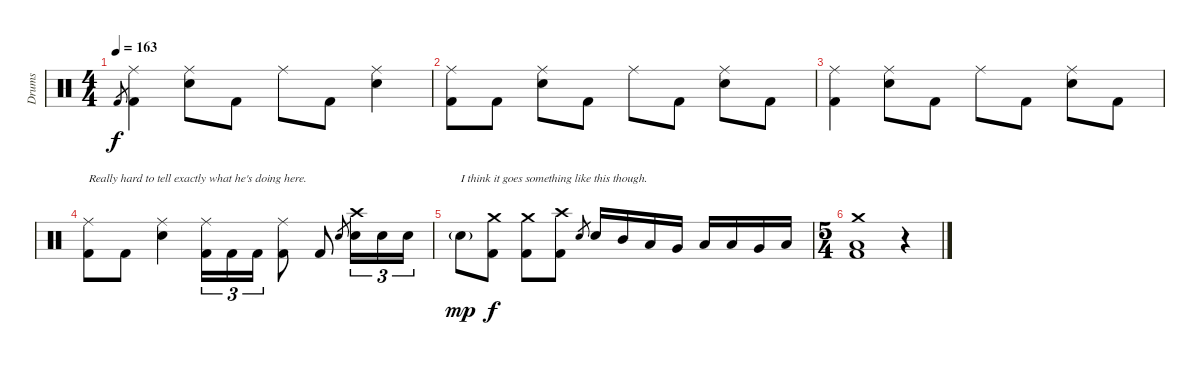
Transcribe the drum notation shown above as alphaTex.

\track ("Drums" "Drums") {instrument percussion}
\staff {score}
\articulation defaults
\ts (4 4)
\tempo 163
\clef neutral
\ks c "Kick (hit) 2".8{gr dy f}
("Ride (middle)" "Kick (hit) 2").4 ("Ride (middle)" "Electric Snare (hit)").8 "Kick (hit) 2".8 "Ride (middle)".8 "Kick (hit) 2".8 ("Ride (middle)" "Electric Snare (hit)").4 |
("Ride (middle)" "Kick (hit) 2").8 "Kick (hit) 2".8 ("Ride (middle)" "Electric Snare (hit)").8 "Kick (hit) 2".8 "Ride (middle)".8 "Kick (hit) 2".8 ("Ride (middle)" "Electric Snare (hit)").8 "Kick (hit) 2".8 |
("Ride (middle)" "Kick (hit) 2").4 ("Ride (middle)" "Electric Snare (hit)").8 "Kick (hit) 2".8 "Ride (middle)".8 "Kick (hit) 2".8 ("Ride (middle)" "Electric Snare (hit)").8 "Kick (hit) 2".8 |
("Ride (middle)" "Kick (hit) 2").8{txt "Really hard to tell exactly what he's doing here."} "Kick (hit) 2".8 ("Ride (middle)" "Electric Snare (hit)").4 ("Ride (middle)" "Kick (hit) 2").16{tu (3 2)} "Kick (hit) 2".16{tu (3 2)} "Kick (hit) 2".16{tu (3 2)} ("Ride (middle)" "Kick (hit) 2").8 "Kick (hit) 2".8 "Electric Snare (hit)".8{gr} ("Crash high (hit)" "Electric Snare (hit)").16{tu (3 2)} "Electric Snare (hit)".16{tu (3 2)} "Electric Snare (hit)".16{tu (3 2)} |
"Electric Snare (hit)"{g}.8{txt "I think it goes something like this though." dy mp} ("Crash medium (hit)" "Kick (hit) 2").8{dy f} ("Crash medium (hit)" "Kick (hit) 2").8 ("Crash high (hit)" "Kick (hit) 2").8 "Electric Snare (hit)".8{gr} "Electric Snare (hit)".16 "Mid Tom (hit)".16 "Low Tom (hit)".16 "Very Low Tom (hit)".16 "Low Tom (hit)".16 "Low Tom (hit)".16 "Very Low Tom (hit)".16 "Low Floor Tom (hit)".16 |
\ts (5 4)
("Crash medium (hit)" "Low Floor Tom (hit)" "Kick (hit) 2").1 r.4
